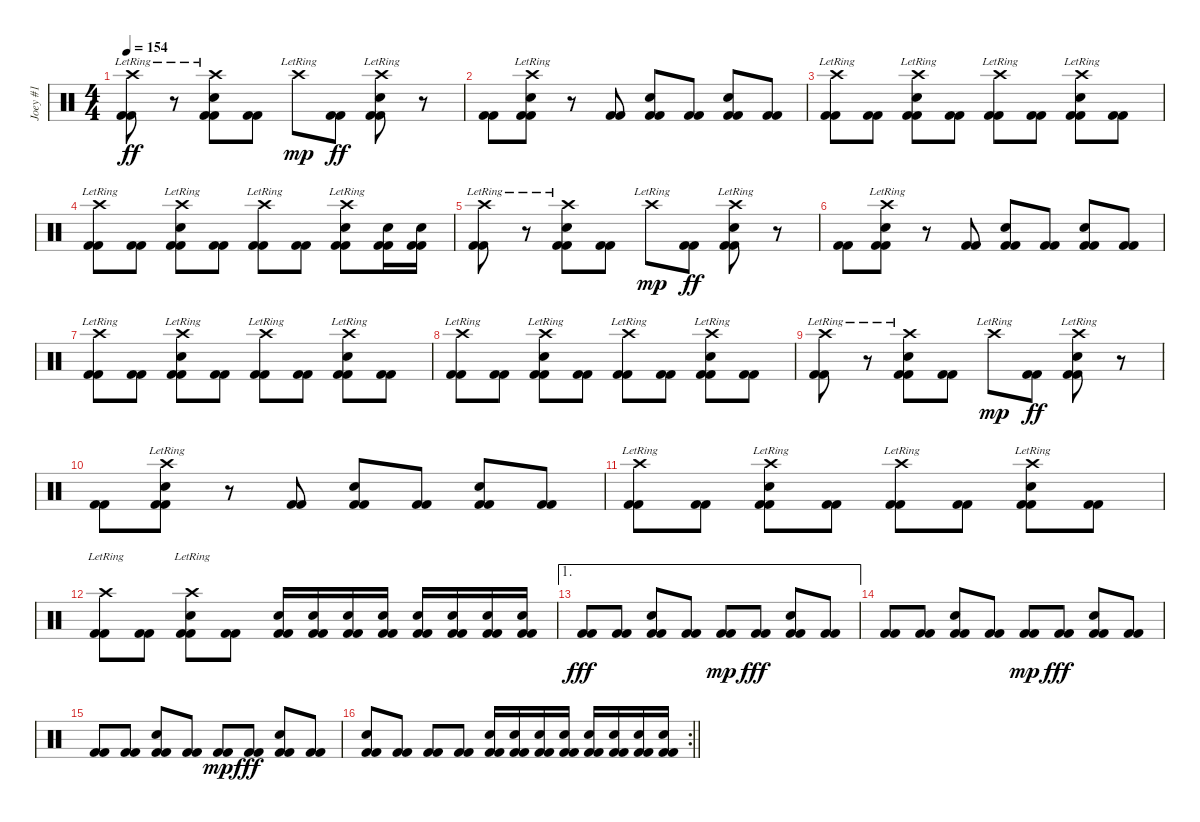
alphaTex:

\track ("Joey #1" "Joey #1") {instrument percussion}
\staff {score}
\articulation defaults
\ts (4 4)
\tempo 154
\clef neutral
\ks c
("Crash high (hit)"{lr} "Kick (hit) 2" "Kick (hit) 2").8{dy ff} r.8 ("Crash high (hit)"{lr} "Snare (hit) 2" "Kick (hit) 2" "Kick (hit) 2").8 ("Kick (hit) 2" "Kick (hit) 2").8 "Crash high (hit)"{lr}.8{dy mp} ("Kick (hit) 2" "Kick (hit) 2").8{dy ff} ("Crash high (hit)"{lr} "Snare (hit) 2" "Kick (hit) 2" "Kick (hit) 2").8 r.8 |
("Kick (hit) 2" "Kick (hit) 2").8 ("Crash high (hit)"{lr} "Snare (hit) 2" "Kick (hit) 2" "Kick (hit) 2").8 r.8 ("Kick (hit) 2" "Kick (hit) 2").8 ("Snare (hit) 2" "Kick (hit) 2" "Kick (hit) 2").8 ("Kick (hit) 2" "Kick (hit) 2").8 ("Snare (hit) 2" "Kick (hit) 2" "Kick (hit) 2").8 ("Kick (hit) 2" "Kick (hit) 2").8 |
("Crash high (hit)"{lr} "Kick (hit) 2" "Kick (hit) 2").8 ("Kick (hit) 2" "Kick (hit) 2").8 ("Crash high (hit)"{lr} "Snare (hit) 2" "Kick (hit) 2" "Kick (hit) 2").8 ("Kick (hit) 2" "Kick (hit) 2").8 ("Crash high (hit)"{lr} "Kick (hit) 2" "Kick (hit) 2").8 ("Kick (hit) 2" "Kick (hit) 2").8 ("Crash high (hit)"{lr} "Snare (hit) 2" "Kick (hit) 2" "Kick (hit) 2").8 ("Kick (hit) 2" "Kick (hit) 2").8 |
("Crash high (hit)"{lr} "Kick (hit) 2" "Kick (hit) 2").8 ("Kick (hit) 2" "Kick (hit) 2").8 ("Crash high (hit)"{lr} "Snare (hit) 2" "Kick (hit) 2" "Kick (hit) 2").8 ("Kick (hit) 2" "Kick (hit) 2").8 ("Crash high (hit)"{lr} "Kick (hit) 2" "Kick (hit) 2").8 ("Kick (hit) 2" "Kick (hit) 2").8 ("Crash high (hit)"{lr} "Snare (hit) 2" "Kick (hit) 2" "Kick (hit) 2").8 ("Snare (hit) 2" "Kick (hit) 2" "Kick (hit) 2").16 ("Snare (hit) 2" "Kick (hit) 2" "Kick (hit) 2").16 |
("Crash high (hit)"{lr} "Kick (hit) 2" "Kick (hit) 2").8 r.8 ("Crash high (hit)"{lr} "Snare (hit) 2" "Kick (hit) 2" "Kick (hit) 2").8 ("Kick (hit) 2" "Kick (hit) 2").8 "Crash high (hit)"{lr}.8{dy mp} ("Kick (hit) 2" "Kick (hit) 2").8{dy ff} ("Crash high (hit)"{lr} "Snare (hit) 2" "Kick (hit) 2" "Kick (hit) 2").8 r.8 |
("Kick (hit) 2" "Kick (hit) 2").8 ("Crash high (hit)"{lr} "Snare (hit) 2" "Kick (hit) 2" "Kick (hit) 2").8 r.8 ("Kick (hit) 2" "Kick (hit) 2").8 ("Snare (hit) 2" "Kick (hit) 2" "Kick (hit) 2").8 ("Kick (hit) 2" "Kick (hit) 2").8 ("Snare (hit) 2" "Kick (hit) 2" "Kick (hit) 2").8 ("Kick (hit) 2" "Kick (hit) 2").8 |
("Crash high (hit)"{lr} "Kick (hit) 2" "Kick (hit) 2").8 ("Kick (hit) 2" "Kick (hit) 2").8 ("Crash high (hit)"{lr} "Snare (hit) 2" "Kick (hit) 2" "Kick (hit) 2").8 ("Kick (hit) 2" "Kick (hit) 2").8 ("Crash high (hit)"{lr} "Kick (hit) 2" "Kick (hit) 2").8 ("Kick (hit) 2" "Kick (hit) 2").8 ("Crash high (hit)"{lr} "Snare (hit) 2" "Kick (hit) 2" "Kick (hit) 2").8 ("Kick (hit) 2" "Kick (hit) 2").8 |
("Crash high (hit)"{lr} "Kick (hit) 2" "Kick (hit) 2").8 ("Kick (hit) 2" "Kick (hit) 2").8 ("Crash high (hit)"{lr} "Snare (hit) 2" "Kick (hit) 2" "Kick (hit) 2").8 ("Kick (hit) 2" "Kick (hit) 2").8 ("Crash high (hit)"{lr} "Kick (hit) 2" "Kick (hit) 2").8 ("Kick (hit) 2" "Kick (hit) 2").8 ("Crash high (hit)"{lr} "Snare (hit) 2" "Kick (hit) 2" "Kick (hit) 2").8 ("Kick (hit) 2" "Kick (hit) 2").8 |
("Crash high (hit)"{lr} "Kick (hit) 2" "Kick (hit) 2").8 r.8 ("Crash high (hit)"{lr} "Snare (hit) 2" "Kick (hit) 2" "Kick (hit) 2").8 ("Kick (hit) 2" "Kick (hit) 2").8 "Crash high (hit)"{lr}.8{dy mp} ("Kick (hit) 2" "Kick (hit) 2").8{dy ff} ("Crash high (hit)"{lr} "Snare (hit) 2" "Kick (hit) 2" "Kick (hit) 2").8 r.8 |
("Kick (hit) 2" "Kick (hit) 2").8 ("Crash high (hit)"{lr} "Snare (hit) 2" "Kick (hit) 2" "Kick (hit) 2").8 r.8 ("Kick (hit) 2" "Kick (hit) 2").8 ("Snare (hit) 2" "Kick (hit) 2" "Kick (hit) 2").8 ("Kick (hit) 2" "Kick (hit) 2").8 ("Snare (hit) 2" "Kick (hit) 2" "Kick (hit) 2").8 ("Kick (hit) 2" "Kick (hit) 2").8 |
("Crash high (hit)"{lr} "Kick (hit) 2" "Kick (hit) 2").8 ("Kick (hit) 2" "Kick (hit) 2").8 ("Crash high (hit)"{lr} "Snare (hit) 2" "Kick (hit) 2" "Kick (hit) 2").8 ("Kick (hit) 2" "Kick (hit) 2").8 ("Crash high (hit)"{lr} "Kick (hit) 2" "Kick (hit) 2").8 ("Kick (hit) 2" "Kick (hit) 2").8 ("Crash high (hit)"{lr} "Snare (hit) 2" "Kick (hit) 2" "Kick (hit) 2").8 ("Kick (hit) 2" "Kick (hit) 2").8 |
("Crash high (hit)"{lr} "Kick (hit) 2" "Kick (hit) 2").8 ("Kick (hit) 2" "Kick (hit) 2").8 ("Crash high (hit)"{lr} "Snare (hit) 2" "Kick (hit) 2" "Kick (hit) 2").8 ("Kick (hit) 2" "Kick (hit) 2").8 ("Snare (hit) 2" "Kick (hit) 2" "Kick (hit) 2").16 ("Snare (hit) 2" "Kick (hit) 2" "Kick (hit) 2").16 ("Snare (hit) 2" "Kick (hit) 2" "Kick (hit) 2").16 ("Snare (hit) 2" "Kick (hit) 2" "Kick (hit) 2").16 ("Snare (hit) 2" "Kick (hit) 2" "Kick (hit) 2").16 ("Snare (hit) 2" "Kick (hit) 2" "Kick (hit) 2").16 ("Snare (hit) 2" "Kick (hit) 2" "Kick (hit) 2").16 ("Snare (hit) 2" "Kick (hit) 2" "Kick (hit) 2").16 |
\ae 1
("Kick (hit) 2" "Kick (hit) 2").8{dy fff} ("Kick (hit) 2" "Kick (hit) 2").8 ("Snare (hit) 2" "Kick (hit) 2" "Kick (hit) 2").8 ("Kick (hit) 2" "Kick (hit) 2").8 ("Kick (hit) 2" "Kick (hit) 2").8{dy mp} ("Kick (hit) 2" "Kick (hit) 2").8{dy fff} ("Snare (hit) 2" "Kick (hit) 2" "Kick (hit) 2").8 ("Kick (hit) 2" "Kick (hit) 2").8 |
("Kick (hit) 2" "Kick (hit) 2").8 ("Kick (hit) 2" "Kick (hit) 2").8 ("Snare (hit) 2" "Kick (hit) 2" "Kick (hit) 2").8 ("Kick (hit) 2" "Kick (hit) 2").8 ("Kick (hit) 2" "Kick (hit) 2").8{dy mp} ("Kick (hit) 2" "Kick (hit) 2").8{dy fff} ("Snare (hit) 2" "Kick (hit) 2" "Kick (hit) 2").8 ("Kick (hit) 2" "Kick (hit) 2").8 |
("Kick (hit) 2" "Kick (hit) 2").8 ("Kick (hit) 2" "Kick (hit) 2").8 ("Snare (hit) 2" "Kick (hit) 2" "Kick (hit) 2").8 ("Kick (hit) 2" "Kick (hit) 2").8 ("Kick (hit) 2" "Kick (hit) 2").8{dy mp} ("Kick (hit) 2" "Kick (hit) 2").8{dy fff} ("Snare (hit) 2" "Kick (hit) 2" "Kick (hit) 2").8 ("Kick (hit) 2" "Kick (hit) 2").8 |
\rc 2
\barLineRight lightlight
("Snare (hit) 2" "Kick (hit) 2" "Kick (hit) 2").8 ("Kick (hit) 2" "Kick (hit) 2").8 ("Kick (hit) 2" "Kick (hit) 2").8 ("Kick (hit) 2" "Kick (hit) 2").8 ("Snare (hit) 2" "Kick (hit) 2" "Kick (hit) 2").16 ("Snare (hit) 2" "Kick (hit) 2" "Kick (hit) 2").16 ("Snare (hit) 2" "Kick (hit) 2" "Kick (hit) 2").16 ("Snare (hit) 2" "Kick (hit) 2" "Kick (hit) 2").16 ("Snare (hit) 2" "Kick (hit) 2" "Kick (hit) 2").16 ("Snare (hit) 2" "Kick (hit) 2" "Kick (hit) 2").16 ("Snare (hit) 2" "Kick (hit) 2" "Kick (hit) 2").16 ("Snare (hit) 2" "Kick (hit) 2" "Kick (hit) 2").16
